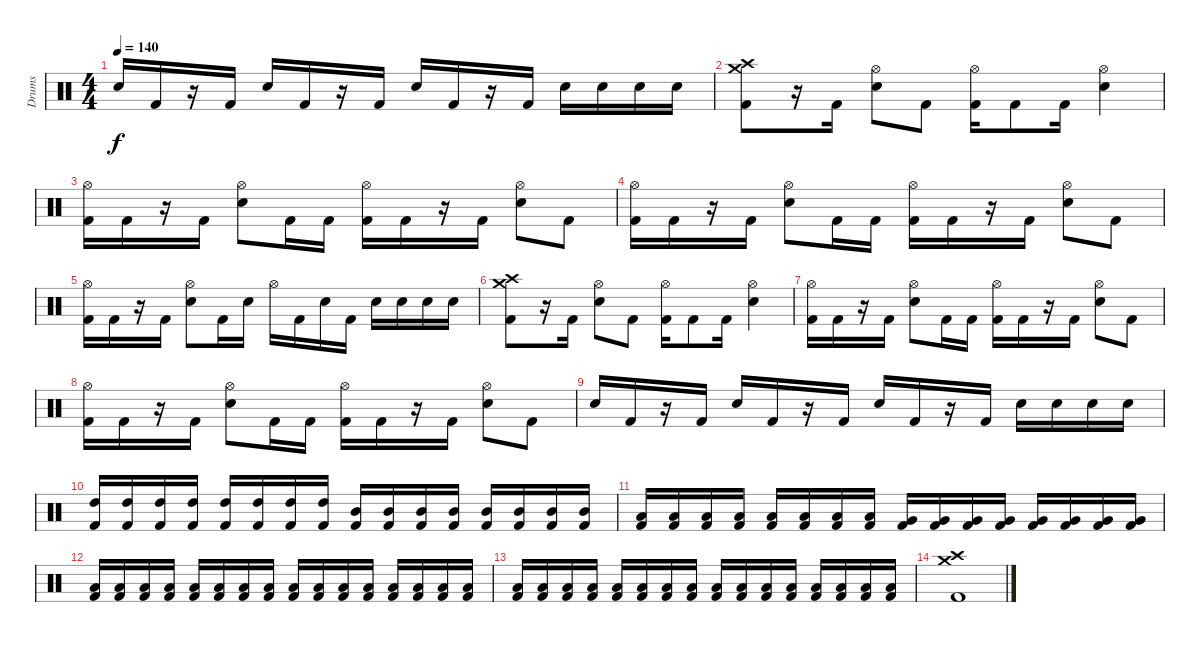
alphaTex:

\track ("Drums" "Drums") {instrument percussion}
\staff {score}
\articulation defaults
\ts (4 4)
\tempo 140
\clef neutral
\ks c "Snare (hit) 2".16{dy f} "Kick (hit) 2".16
r.16 "Kick (hit) 2".16 "Snare (hit) 2".16 "Kick (hit) 2".16 r.16 "Kick (hit) 2".16 "Snare (hit) 2".16 "Kick (hit) 2".16 r.16 "Kick (hit) 2".16 "Snare (hit) 2".16 "Snare (hit) 2".16 "Snare (hit) 2".16 "Snare (hit) 2".16 |
("Crash medium (hit)" "Crash high (hit)" "Kick (hit) 2").8 r.16 "Kick (hit) 2".16 ("Hi-Hat (open)" "Snare (hit) 2").8 "Kick (hit) 2".8 ("Hi-Hat (open)" "Kick (hit) 2").16 "Kick (hit) 2".8 "Kick (hit) 2".16 ("Hi-Hat (open)" "Snare (hit) 2").4 |
("Hi-Hat (open)" "Kick (hit) 2").16 "Kick (hit) 2".16 r.16 "Kick (hit) 2".16 ("Hi-Hat (open)" "Snare (hit) 2").8 "Kick (hit) 2".16 "Kick (hit) 2".16 ("Hi-Hat (open)" "Kick (hit) 2").16 "Kick (hit) 2".16 r.16 "Kick (hit) 2".16 ("Hi-Hat (open)" "Snare (hit) 2").8 "Kick (hit) 2".8 |
("Hi-Hat (open)" "Kick (hit) 2").16 "Kick (hit) 2".16 r.16 "Kick (hit) 2".16 ("Hi-Hat (open)" "Snare (hit) 2").8 "Kick (hit) 2".16 "Kick (hit) 2".16 ("Hi-Hat (open)" "Kick (hit) 2").16 "Kick (hit) 2".16 r.16 "Kick (hit) 2".16 ("Hi-Hat (open)" "Snare (hit) 2").8 "Kick (hit) 2".8 |
("Hi-Hat (open)" "Kick (hit) 2").16 "Kick (hit) 2".16 r.16 "Kick (hit) 2".16 ("Hi-Hat (open)" "Snare (hit) 2").8 "Kick (hit) 2".16 "Snare (hit) 2".16 "Hi-Hat (open)".16 "Kick (hit) 2".16 "Snare (hit) 2".16 "Kick (hit) 2".16 "Snare (hit) 2".16 "Snare (hit) 2".16 "Snare (hit) 2".16 "Snare (hit) 2".16 |
("Crash medium (hit)" "Crash high (hit)" "Kick (hit) 2").8 r.16 "Kick (hit) 2".16 ("Hi-Hat (open)" "Snare (hit) 2").8 "Kick (hit) 2".8 ("Hi-Hat (open)" "Kick (hit) 2").16 "Kick (hit) 2".8 "Kick (hit) 2".16 ("Hi-Hat (open)" "Snare (hit) 2").4 |
("Hi-Hat (open)" "Kick (hit) 2").16 "Kick (hit) 2".16 r.16 "Kick (hit) 2".16 ("Hi-Hat (open)" "Snare (hit) 2").8 "Kick (hit) 2".16 "Kick (hit) 2".16 ("Hi-Hat (open)" "Kick (hit) 2").16 "Kick (hit) 2".16 r.16 "Kick (hit) 2".16 ("Hi-Hat (open)" "Snare (hit) 2").8 "Kick (hit) 2".8 |
("Hi-Hat (open)" "Kick (hit) 2").16 "Kick (hit) 2".16 r.16 "Kick (hit) 2".16 ("Hi-Hat (open)" "Snare (hit) 2").8 "Kick (hit) 2".16 "Kick (hit) 2".16 ("Hi-Hat (open)" "Kick (hit) 2").16 "Kick (hit) 2".16 r.16 "Kick (hit) 2".16 ("Hi-Hat (open)" "Snare (hit) 2").8 "Kick (hit) 2".8 |
"Snare (hit) 2".16 "Kick (hit) 2".16 r.16 "Kick (hit) 2".16 "Snare (hit) 2".16 "Kick (hit) 2".16 r.16 "Kick (hit) 2".16 "Snare (hit) 2".16 "Kick (hit) 2".16 r.16 "Kick (hit) 2".16 "Snare (hit) 2".16 "Snare (hit) 2".16 "Snare (hit) 2".16 "Snare (hit) 2".16 |
("High Tom (hit)" "Kick (hit) 2").16 ("High Tom (hit)" "Kick (hit) 2").16 ("High Tom (hit)" "Kick (hit) 2").16 ("High Tom (hit)" "Kick (hit) 2").16 ("High Tom (hit)" "Kick (hit) 2").16 ("High Tom (hit)" "Kick (hit) 2").16 ("High Tom (hit)" "Kick (hit) 2").16 ("High Tom (hit)" "Kick (hit) 2").16 ("Mid Tom (hit)" "Kick (hit) 2").16 ("Mid Tom (hit)" "Kick (hit) 2").16 ("Mid Tom (hit)" "Kick (hit) 2").16 ("Mid Tom (hit)" "Kick (hit) 2").16 ("Mid Tom (hit)" "Kick (hit) 2").16 ("Mid Tom (hit)" "Kick (hit) 2").16 ("Mid Tom (hit)" "Kick (hit) 2").16 ("Mid Tom (hit)" "Kick (hit) 2").16 |
("Low Tom (hit)" "Kick (hit) 2").16 ("Low Tom (hit)" "Kick (hit) 2").16 ("Low Tom (hit)" "Kick (hit) 2").16 ("Low Tom (hit)" "Kick (hit) 2").16 ("Low Tom (hit)" "Kick (hit) 2").16 ("Low Tom (hit)" "Kick (hit) 2").16 ("Low Tom (hit)" "Kick (hit) 2").16 ("Low Tom (hit)" "Kick (hit) 2").16 ("Very Low Tom (hit)" "Kick (hit) 2").16 ("Very Low Tom (hit)" "Kick (hit) 2").16 ("Very Low Tom (hit)" "Kick (hit) 2").16 ("Very Low Tom (hit)" "Kick (hit) 2").16 ("Very Low Tom (hit)" "Kick (hit) 2").16 ("Very Low Tom (hit)" "Kick (hit) 2").16 ("Very Low Tom (hit)" "Kick (hit) 2").16 ("Very Low Tom (hit)" "Kick (hit) 2").16 |
("Low Floor Tom (hit)" "Kick (hit) 2").16 ("Low Floor Tom (hit)" "Kick (hit) 2").16 ("Low Floor Tom (hit)" "Kick (hit) 2").16 ("Low Floor Tom (hit)" "Kick (hit) 2").16 ("Low Floor Tom (hit)" "Kick (hit) 2").16 ("Low Floor Tom (hit)" "Kick (hit) 2").16 ("Low Floor Tom (hit)" "Kick (hit) 2").16 ("Low Floor Tom (hit)" "Kick (hit) 2").16 ("Low Floor Tom (hit)" "Kick (hit) 2").16 ("Low Floor Tom (hit)" "Kick (hit) 2").16 ("Low Floor Tom (hit)" "Kick (hit) 2").16 ("Low Floor Tom (hit)" "Kick (hit) 2").16 ("Low Floor Tom (hit)" "Kick (hit) 2").16 ("Low Floor Tom (hit)" "Kick (hit) 2").16 ("Low Floor Tom (hit)" "Kick (hit) 2").16 ("Low Floor Tom (hit)" "Kick (hit) 2").16 |
("Low Floor Tom (hit)" "Kick (hit) 2").16 ("Low Floor Tom (hit)" "Kick (hit) 2").16 ("Low Floor Tom (hit)" "Kick (hit) 2").16 ("Low Floor Tom (hit)" "Kick (hit) 2").16 ("Low Floor Tom (hit)" "Kick (hit) 2").16 ("Low Floor Tom (hit)" "Kick (hit) 2").16 ("Low Floor Tom (hit)" "Kick (hit) 2").16 ("Low Floor Tom (hit)" "Kick (hit) 2").16 ("Low Floor Tom (hit)" "Kick (hit) 2").16 ("Low Floor Tom (hit)" "Kick (hit) 2").16 ("Low Floor Tom (hit)" "Kick (hit) 2").16 ("Low Floor Tom (hit)" "Kick (hit) 2").16 ("Low Floor Tom (hit)" "Kick (hit) 2").16 ("Low Floor Tom (hit)" "Kick (hit) 2").16 ("Low Floor Tom (hit)" "Kick (hit) 2").16 ("Low Floor Tom (hit)" "Kick (hit) 2").16 |
("Crash medium (hit)" "Crash high (hit)" "Kick (hit) 2").1
